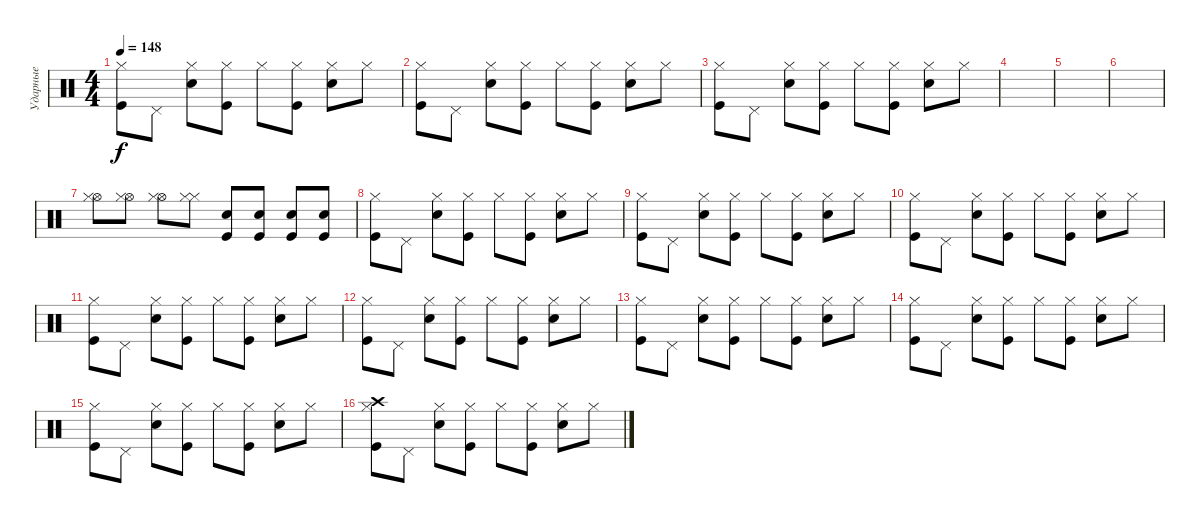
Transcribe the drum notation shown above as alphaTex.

\track ("Ударные" "Ударные") {instrument percussion}
\staff {score}
\articulation defaults
\ts (4 4)
\tempo 148
\clef neutral
\ks c
("Hi-Hat (closed)" "Kick (hit)").8{dy f} "Pedal Hi-Hat (hit)".8 ("Hi-Hat (closed)" "Snare (hit) 2").8 ("Hi-Hat (closed)" "Kick (hit)").8 "Hi-Hat (closed)".8 ("Hi-Hat (closed)" "Kick (hit)").8 ("Hi-Hat (closed)" "Snare (hit) 2").8 "Hi-Hat (closed)".8 |
("Hi-Hat (closed)" "Kick (hit)").8 "Pedal Hi-Hat (hit)".8 ("Hi-Hat (closed)" "Snare (hit) 2").8 ("Hi-Hat (closed)" "Kick (hit)").8 "Hi-Hat (closed)".8 ("Hi-Hat (closed)" "Kick (hit)").8 ("Hi-Hat (closed)" "Snare (hit) 2").8 "Hi-Hat (closed)".8 |
("Hi-Hat (closed)" "Kick (hit)").8 "Pedal Hi-Hat (hit)".8 ("Hi-Hat (closed)" "Snare (hit) 2").8 ("Hi-Hat (closed)" "Kick (hit)").8 "Hi-Hat (closed)".8 ("Hi-Hat (closed)" "Kick (hit)").8 ("Hi-Hat (closed)" "Snare (hit) 2").8 "Hi-Hat (closed)".8 |
|
|
|
("Hi-Hat (open)" "Hi-Hat (closed)").8 ("Hi-Hat (open)" "Hi-Hat (closed)").8 ("Hi-Hat (open)" "Hi-Hat (closed)").8 ("Hi-Hat (closed)" "Hi-Hat (closed)").8 ("Snare (hit) 2" "Kick (hit)").8 ("Snare (hit) 2" "Kick (hit)").8 ("Snare (hit) 2" "Kick (hit)").8 ("Snare (hit) 2" "Kick (hit)").8 |
("Hi-Hat (closed)" "Kick (hit)").8 "Pedal Hi-Hat (hit)".8 ("Hi-Hat (closed)" "Snare (hit) 2").8 ("Hi-Hat (closed)" "Kick (hit)").8 "Hi-Hat (closed)".8 ("Hi-Hat (closed)" "Kick (hit)").8 ("Hi-Hat (closed)" "Snare (hit) 2").8 "Hi-Hat (closed)".8 |
("Hi-Hat (closed)" "Kick (hit)").8 "Pedal Hi-Hat (hit)".8 ("Hi-Hat (closed)" "Snare (hit) 2").8 ("Hi-Hat (closed)" "Kick (hit)").8 "Hi-Hat (closed)".8 ("Hi-Hat (closed)" "Kick (hit)").8 ("Hi-Hat (closed)" "Snare (hit) 2").8 "Hi-Hat (closed)".8 |
("Hi-Hat (closed)" "Kick (hit)").8 "Pedal Hi-Hat (hit)".8 ("Hi-Hat (closed)" "Snare (hit) 2").8 ("Hi-Hat (closed)" "Kick (hit)").8 "Hi-Hat (closed)".8 ("Hi-Hat (closed)" "Kick (hit)").8 ("Hi-Hat (closed)" "Snare (hit) 2").8 "Hi-Hat (closed)".8 |
("Hi-Hat (closed)" "Kick (hit)").8 "Pedal Hi-Hat (hit)".8 ("Hi-Hat (closed)" "Snare (hit) 2").8 ("Hi-Hat (closed)" "Kick (hit)").8 "Hi-Hat (closed)".8 ("Hi-Hat (closed)" "Kick (hit)").8 ("Hi-Hat (closed)" "Snare (hit) 2").8 "Hi-Hat (closed)".8 |
("Hi-Hat (closed)" "Kick (hit)").8 "Pedal Hi-Hat (hit)".8 ("Hi-Hat (closed)" "Snare (hit) 2").8 ("Hi-Hat (closed)" "Kick (hit)").8 "Hi-Hat (closed)".8 ("Hi-Hat (closed)" "Kick (hit)").8 ("Hi-Hat (closed)" "Snare (hit) 2").8 "Hi-Hat (closed)".8 |
("Hi-Hat (closed)" "Kick (hit)").8 "Pedal Hi-Hat (hit)".8 ("Hi-Hat (closed)" "Snare (hit) 2").8 ("Hi-Hat (closed)" "Kick (hit)").8 "Hi-Hat (closed)".8 ("Hi-Hat (closed)" "Kick (hit)").8 ("Hi-Hat (closed)" "Snare (hit) 2").8 "Hi-Hat (closed)".8 |
("Hi-Hat (closed)" "Kick (hit)").8 "Pedal Hi-Hat (hit)".8 ("Hi-Hat (closed)" "Snare (hit) 2").8 ("Hi-Hat (closed)" "Kick (hit)").8 "Hi-Hat (closed)".8 ("Hi-Hat (closed)" "Kick (hit)").8 ("Hi-Hat (closed)" "Snare (hit) 2").8 "Hi-Hat (closed)".8 |
("Hi-Hat (closed)" "Kick (hit)").8 "Pedal Hi-Hat (hit)".8 ("Hi-Hat (closed)" "Snare (hit) 2").8 ("Hi-Hat (closed)" "Kick (hit)").8 "Hi-Hat (closed)".8 ("Hi-Hat (closed)" "Kick (hit)").8 ("Hi-Hat (closed)" "Snare (hit) 2").8 "Hi-Hat (closed)".8 |
("Hi-Hat (closed)" "Crash high (hit)" "Kick (hit)").8 "Pedal Hi-Hat (hit)".8 ("Hi-Hat (closed)" "Snare (hit) 2").8 ("Hi-Hat (closed)" "Kick (hit)").8 "Hi-Hat (closed)".8 ("Hi-Hat (closed)" "Kick (hit)").8 ("Hi-Hat (closed)" "Snare (hit) 2").8 "Hi-Hat (closed)".8
